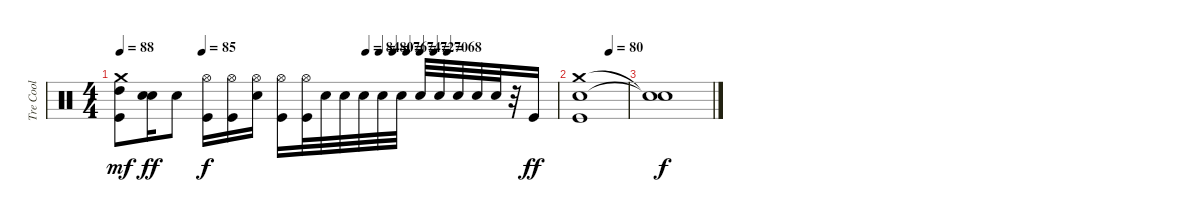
\track ("Tre Cool" "Tre Cool") {instrument percussion}
\staff {score}
\articulation defaults
\ts (4 4)
\tempo 88
\tempo (85 0.1875)
\tempo (84 0.5625)
\tempo (80 0.59375)
\tempo (76 0.625)
\tempo (74 0.65625)
\tempo (72 0.6875)
\tempo (70 0.71875)
\tempo (68 0.75)
\clef neutral
\ks c
("Crash medium (hit)" "High Tom (hit)" "Kick (hit)").8{dy mf} ("Snare (hit) 2" "Snare (hit) 2").16{dy ff} "Snare (hit) 2".8 ("Hi-Hat (open)" "Kick (hit)").16{dy f} ("Hi-Hat (open)" "Kick (hit)").16 ("Hi-Hat (open)" "Snare (hit) 2").16 ("Hi-Hat (open)" "Kick (hit)").16 ("Hi-Hat (open)" "Kick (hit)").32 "Snare (hit) 2".32 "Snare (hit) 2".32 "Snare (hit) 2".32 "Snare (hit) 2".32 "Snare (hit) 2".32 "Snare (hit) 2".32 "Snare (hit) 2".32 "Snare (hit) 2".32 "Snare (hit) 2".32 "Snare (hit) 2".32 r.32 "Kick (hit)".16{dy ff} |
\tempo (80 0.625)
("Crash medium (hit)" "Snare (hit) 2" "Kick (hit)").1 |
("Snare (hit)"{t} "Snare (hit)"{t}).1{dy f}
